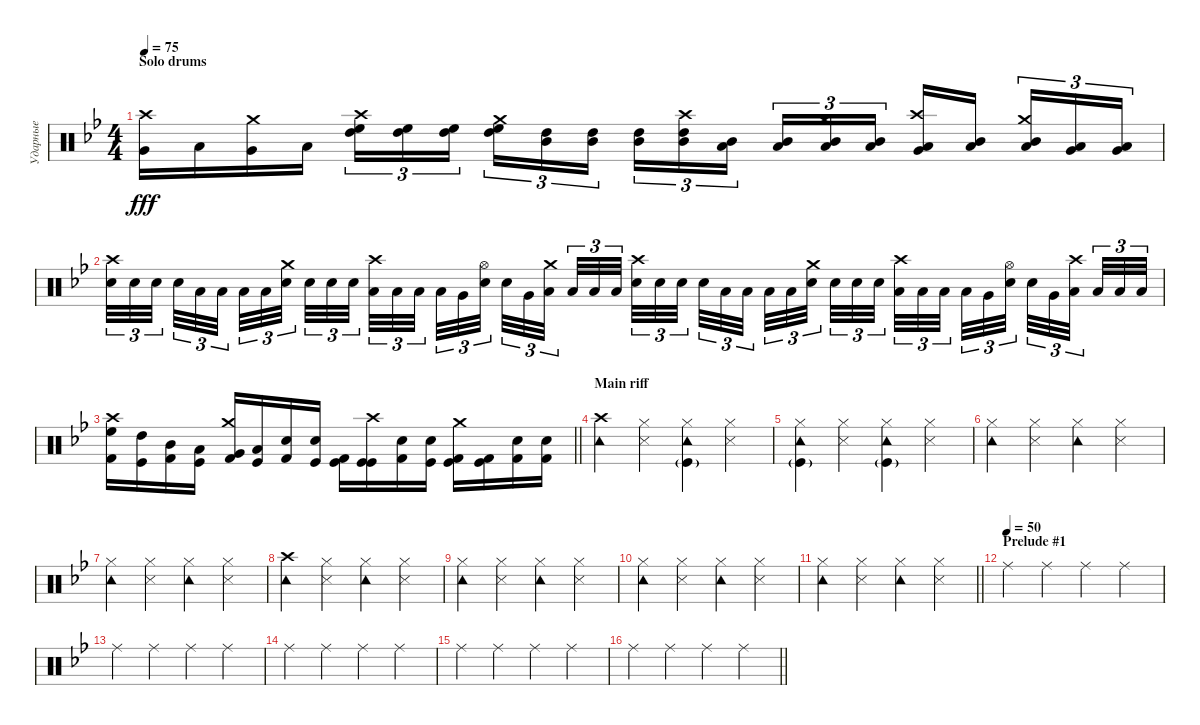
\track ("Ударные" "Ударные") {instrument percussion}
\staff {score}
\articulation defaults
\ts (4 4)
\section ("" "Solo drums")
\tempo 75
\clef neutral
\ks gminor
("Very Low Tom (hit)" "Crash high (hit)").16{dy fff} "Low Tom (hit)".16 ("Very Low Tom (hit)" "Crash medium (hit)").16 "Low Floor Tom (hit)".16 ("High Floor Tom (hit)" "High Tom (hit)" "Crash high (hit)").16{tu (3 2)} ("High Floor Tom (hit)" "High Tom (hit)").16{tu (3 2)} ("High Floor Tom (hit)" "High Tom (hit)").16{tu (3 2) beam splitsecondary} ("High Floor Tom (hit)" "High Tom (hit)" "Crash medium (hit)").16{tu (3 2)} ("High Tom (hit)" "Mid Tom (hit)").16{tu (3 2)} ("High Tom (hit)" "Mid Tom (hit)").16{tu (3 2)} ("High Tom (hit)" "Mid Tom (hit)").16{tu (3 2)} ("High Tom (hit)" "Mid Tom (hit)" "Crash high (hit)").16{tu (3 2)} ("Mid Tom (hit)" "Low Tom (hit)").16{tu (3 2) beam splitsecondary} ("Mid Tom (hit)" "Low Tom (hit)").16{tu (3 2)} ("Mid Tom (hit)" "Low Tom (hit)" "Crash medium (hit)").16{tu (3 2)} ("Mid Tom (hit)" "Low Tom (hit)").16{tu (3 2)} ("Low Tom (hit)" "Very Low Tom (hit)" "Crash high (hit)").16 ("Mid Tom (hit)" "Low Tom (hit)").16{beam splitsecondary} ("Mid Tom (hit)" "Low Tom (hit)" "Crash medium (hit)").16{tu (3 2)} ("Low Tom (hit)" "Very Low Tom (hit)").16{tu (3 2)} ("Very Low Tom (hit)" "Low Floor Tom (hit)").16{tu (3 2)} |
("Snare (hit) 2" "Crash high (hit)").32{tu (3 2)} "Snare (hit) 2".32{tu (3 2)} "Snare (hit) 2".32{tu (3 2) beam splitsecondary} "Snare (hit) 2".32{tu (3 2)} "Low Tom (hit)".32{tu (3 2)} "Low Tom (hit)".32{tu (3 2) beam splitsecondary} "Low Tom (hit)".32{tu (3 2)} "Low Tom (hit)".32{tu (3 2)} ("Snare (hit) 2" "Crash medium (hit)").32{tu (3 2) beam splitsecondary} "Snare (hit) 2".32{tu (3 2)} "Snare (hit) 2".32{tu (3 2)} "Snare (hit) 2".32{tu (3 2)} ("Low Tom (hit)" "Crash high (hit)").32{tu (3 2)} "Low Tom (hit)".32{tu (3 2)} "Low Tom (hit)".32{tu (3 2) beam splitsecondary} "Low Tom (hit)".32{tu (3 2)} "Very Low Tom (hit)".32{tu (3 2)} ("Snare (hit) 2" "Hi-Hat (open)").32{tu (3 2) beam splitsecondary} "Snare (hit) 2".32{tu (3 2)} "Very Low Tom (hit)".32{tu (3 2)} ("Low Floor Tom (hit)" "Crash medium (hit)").32{tu (3 2) beam splitsecondary} "Low Floor Tom (hit)".32{tu (3 2)} "Low Floor Tom (hit)".32{tu (3 2)} "Low Floor Tom (hit)".32{tu (3 2)} ("Snare (hit) 2" "Crash high (hit)").32{tu (3 2)} "Snare (hit) 2".32{tu (3 2)} "Snare (hit) 2".32{tu (3 2) beam splitsecondary} "Snare (hit) 2".32{tu (3 2)} "Low Tom (hit)".32{tu (3 2)} "Low Tom (hit)".32{tu (3 2) beam splitsecondary} "Low Tom (hit)".32{tu (3 2)} "Low Tom (hit)".32{tu (3 2)} ("Snare (hit) 2" "Crash medium (hit)").32{tu (3 2) beam splitsecondary} "Snare (hit) 2".32{tu (3 2)} "Snare (hit) 2".32{tu (3 2)} "Snare (hit) 2".32{tu (3 2)} ("Low Tom (hit)" "Crash high (hit)").32{tu (3 2)} "Low Tom (hit)".32{tu (3 2)} "Low Tom (hit)".32{tu (3 2) beam splitsecondary} "Low Tom (hit)".32{tu (3 2)} "Very Low Tom (hit)".32{tu (3 2)} ("Snare (hit) 2" "Hi-Hat (open)").32{tu (3 2) beam splitsecondary} "Snare (hit) 2".32{tu (3 2)} "Very Low Tom (hit)".32{tu (3 2)} ("Low Floor Tom (hit)" "Crash high (hit)").32{tu (3 2) beam splitsecondary} "Low Floor Tom (hit)".32{tu (3 2)} "Low Floor Tom (hit)".32{tu (3 2)} "Low Floor Tom (hit)".32{tu (3 2)} |
\barLineRight lightlight
("Crash high (hit)" "Kick (hit) 2" "High Floor Tom (hit)").16 ("Kick (hit)" "High Tom (hit)").16 ("Kick (hit) 2" "Mid Tom (hit)").16 ("Kick (hit)" "Low Tom (hit)").16 ("Crash medium (hit)" "Kick (hit) 2" "Very Low Tom (hit)").16 ("Kick (hit)" "Low Floor Tom (hit)").16 ("Kick (hit) 2" "Electric Snare (hit)").16 ("Kick (hit)" "Electric Snare (hit)").16 ("Kick (hit) 2" "Kick (hit)").16 ("Crash high (hit)" "Kick (hit)" "Kick (hit)").16 ("Kick (hit) 2" "Electric Snare (hit)").16 ("Kick (hit)" "Electric Snare (hit)").16 ("Crash medium (hit)" "Kick (hit) 2" "Kick (hit)").16 ("Kick (hit)" "Kick (hit) 2").16 ("Kick (hit) 2" "Electric Snare (hit)").16 ("Kick (hit) 2" "Electric Snare (hit)").16 |
\section ("" "Main riff")
("Crash high (hit)" "Tambourine (hit)").4 ("Hi-Hat (closed)" "Snare (side stick) 3").4 ("Hi-Hat (closed)" "Tambourine (hit)" "Kick (hit)"{g}).4 ("Hi-Hat (closed)" "Snare (side stick) 3").4 |
("Hi-Hat (closed)" "Tambourine (hit)" "Kick (hit)"{g}).4 ("Hi-Hat (closed)" "Snare (side stick) 3").4 ("Hi-Hat (closed)" "Tambourine (hit)" "Kick (hit)"{g}).4 ("Hi-Hat (closed)" "Snare (side stick) 3").4 |
("Hi-Hat (closed)" "Tambourine (hit)").4 ("Hi-Hat (closed)" "Snare (side stick) 3").4 ("Hi-Hat (closed)" "Tambourine (hit)").4 ("Hi-Hat (closed)" "Snare (side stick) 3").4 |
("Hi-Hat (closed)" "Tambourine (hit)").4 ("Hi-Hat (closed)" "Snare (side stick) 3").4 ("Hi-Hat (closed)" "Tambourine (hit)").4 ("Hi-Hat (closed)" "Snare (side stick) 3").4 |
("Crash high (hit)" "Tambourine (hit)").4 ("Hi-Hat (closed)" "Snare (side stick) 3").4 ("Hi-Hat (closed)" "Tambourine (hit)").4 ("Hi-Hat (closed)" "Snare (side stick) 3").4 |
("Hi-Hat (closed)" "Tambourine (hit)").4 ("Hi-Hat (closed)" "Snare (side stick) 3").4 ("Hi-Hat (closed)" "Tambourine (hit)").4 ("Hi-Hat (closed)" "Snare (side stick) 3").4 |
("Hi-Hat (closed)" "Tambourine (hit)").4 ("Hi-Hat (closed)" "Snare (side stick) 3").4 ("Hi-Hat (closed)" "Tambourine (hit)").4 ("Hi-Hat (closed)" "Snare (side stick) 3").4 |
\barLineRight lightlight
("Hi-Hat (closed)" "Tambourine (hit)").4 ("Hi-Hat (closed)" "Snare (side stick) 3").4 ("Hi-Hat (closed)" "Tambourine (hit)").4 ("Hi-Hat (closed)" "Snare (side stick) 3").4 |
\section ("" "Prelude #1")
\tempo (50)
"Ride (middle)".4 "Ride (middle)".4 "Ride (middle)".4 "Ride (middle)".4 |
"Ride (middle)".4 "Ride (middle)".4 "Ride (middle)".4 "Ride (middle)".4 |
"Ride (middle)".4 "Ride (middle)".4 "Ride (middle)".4 "Ride (middle)".4 |
"Ride (middle)".4 "Ride (middle)".4 "Ride (middle)".4 "Ride (middle)".4 |
\barLineRight lightlight "Ride (middle)".4 "Ride (middle)".4 "Ride (middle)".4 "Ride (middle)".4
